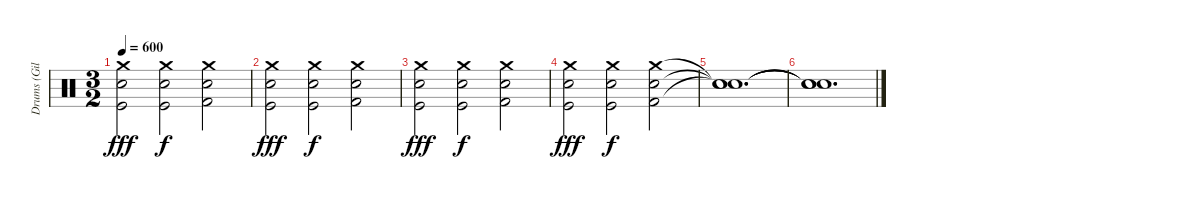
\track ("Drums (Giles)" "Drums (Gil") {instrument percussion}
\staff {score}
\articulation defaults
\ts (3 2)
\tempo 600
\clef neutral
\ks c
("Crash medium (hit)" "Electric Snare (hit)" "Kick (hit)").2{dy fff} ("Crash medium (hit)" "Electric Snare (hit)" "Kick (hit)").2{dy f} ("Crash medium (hit)" "Electric Snare (hit)" "Kick (hit) 2").2 |
("Crash medium (hit)" "Electric Snare (hit)" "Kick (hit)").2{dy fff} ("Crash medium (hit)" "Electric Snare (hit)" "Kick (hit)").2{dy f} ("Crash medium (hit)" "Electric Snare (hit)" "Kick (hit) 2").2 |
("Crash medium (hit)" "Electric Snare (hit)" "Kick (hit)").2{dy fff} ("Crash medium (hit)" "Electric Snare (hit)" "Kick (hit)").2{dy f} ("Crash medium (hit)" "Electric Snare (hit)" "Kick (hit) 2").2 |
("Crash medium (hit)" "Electric Snare (hit)" "Kick (hit)").2{dy fff} ("Crash medium (hit)" "Electric Snare (hit)" "Kick (hit)").2{dy f} ("Crash medium (hit)" "Electric Snare (hit)" "Kick (hit) 2").2 |
("Snare (hit)"{t} "Snare (hit)"{t} "Snare (hit)"{t}).1{d} |
("Snare (hit)"{t} "Snare (hit)"{t} "Snare (hit)"{t}).1{d}
